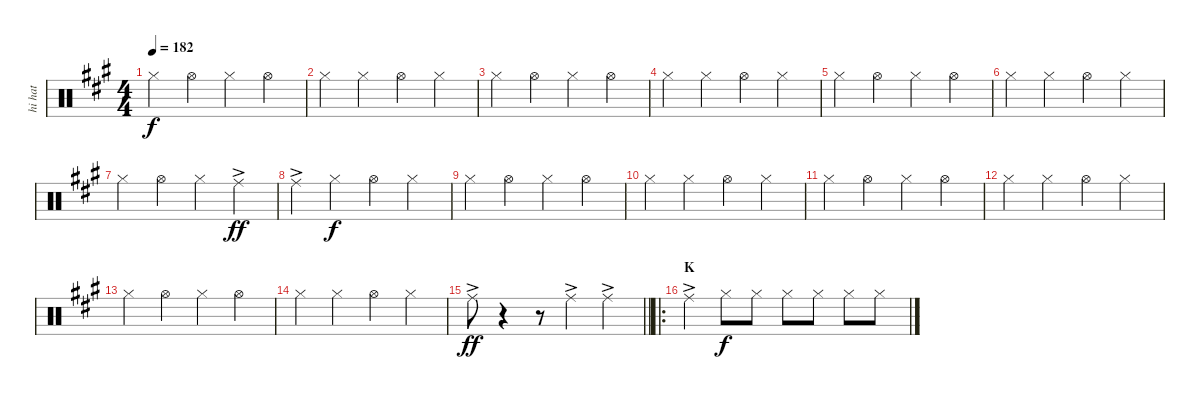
\track ("hi hat" "hi hat") {instrument percussion}
\staff {score}
\articulation defaults
\ts (4 4)
\tempo 182
\clef neutral
\ks f#minor "Hi-Hat (closed)".4{dy f} "Hi-Hat (open)".4 "Hi-Hat (closed)".4 "Hi-Hat (open)".4
|
"Hi-Hat (closed)".4 "Hi-Hat (closed)".4 "Hi-Hat (open)".4 "Hi-Hat (closed)".4 |
"Hi-Hat (closed)".4 "Hi-Hat (open)".4 "Hi-Hat (closed)".4 "Hi-Hat (open)".4 |
"Hi-Hat (closed)".4 "Hi-Hat (closed)".4 "Hi-Hat (open)".4 "Hi-Hat (closed)".4 |
"Hi-Hat (closed)".4 "Hi-Hat (open)".4 "Hi-Hat (closed)".4 "Hi-Hat (open)".4 |
"Hi-Hat (closed)".4 "Hi-Hat (closed)".4 "Hi-Hat (open)".4 "Hi-Hat (closed)".4 |
"Hi-Hat (closed)".4 "Hi-Hat (open)".4 "Hi-Hat (closed)".4 "Ride (middle)"{ac}.4{dy ff} |
"Ride (middle)"{ac}.4 "Hi-Hat (closed)".4{dy f} "Hi-Hat (open)".4 "Hi-Hat (closed)".4 |
"Hi-Hat (closed)".4 "Hi-Hat (open)".4 "Hi-Hat (closed)".4 "Hi-Hat (open)".4 |
"Hi-Hat (closed)".4 "Hi-Hat (closed)".4 "Hi-Hat (open)".4 "Hi-Hat (closed)".4 |
"Hi-Hat (closed)".4 "Hi-Hat (open)".4 "Hi-Hat (closed)".4 "Hi-Hat (open)".4 |
"Hi-Hat (closed)".4 "Hi-Hat (closed)".4 "Hi-Hat (open)".4 "Hi-Hat (closed)".4 |
"Hi-Hat (closed)".4 "Hi-Hat (open)".4 "Hi-Hat (closed)".4 "Hi-Hat (open)".4 |
"Hi-Hat (closed)".4 "Hi-Hat (closed)".4 "Hi-Hat (open)".4 "Hi-Hat (closed)".4 |
\barLineRight lightlight "Ride (middle)"{ac}.8{dy ff}
r.4 r.8 "Ride (middle)"{ac}.4 "Ride (middle)"{ac}.4 |
\ro
\section ("" "K")
"Ride (middle)"{ac}.4 "Hi-Hat (closed)".8{dy f} "Hi-Hat (closed)".8 "Hi-Hat (closed)".8 "Hi-Hat (closed)".8 "Hi-Hat (closed)".8 "Hi-Hat (closed)".8
